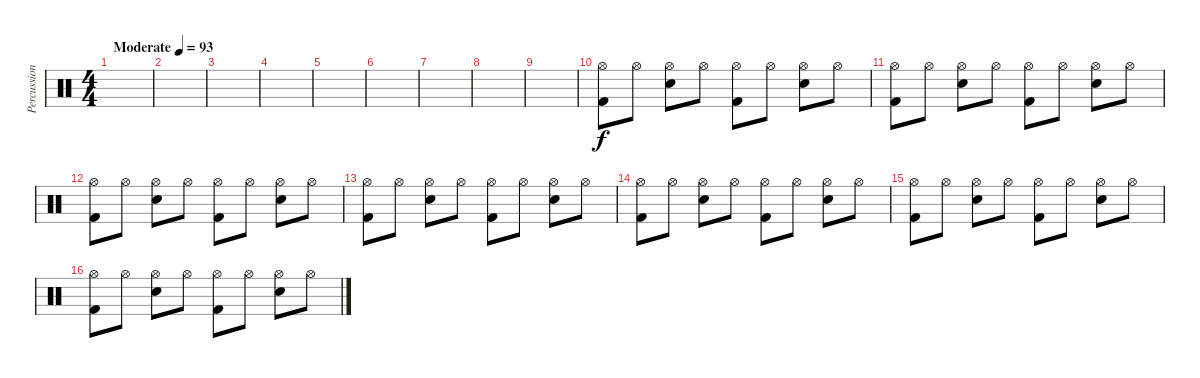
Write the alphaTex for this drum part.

\track ("Percussion" "Percussion") {instrument percussion}
\staff {score}
\articulation defaults
\ts (4 4)
\tempo (93 "Moderate")
\clef neutral
\ks c
|
|
|
|
|
|
|
|
|
("Kick (hit) 2" "Hi-Hat (open)").8 "Hi-Hat (open)".8 ("Electric Snare (hit)" "Hi-Hat (open)").8 "Hi-Hat (open)".8 ("Kick (hit) 2" "Hi-Hat (open)").8 "Hi-Hat (open)".8 ("Electric Snare (hit)" "Hi-Hat (open)").8 "Hi-Hat (open)".8 |
("Kick (hit) 2" "Hi-Hat (open)").8 "Hi-Hat (open)".8 ("Electric Snare (hit)" "Hi-Hat (open)").8 "Hi-Hat (open)".8 ("Kick (hit) 2" "Hi-Hat (open)").8 "Hi-Hat (open)".8 ("Electric Snare (hit)" "Hi-Hat (open)").8 "Hi-Hat (open)".8 |
("Kick (hit) 2" "Hi-Hat (open)").8 "Hi-Hat (open)".8 ("Electric Snare (hit)" "Hi-Hat (open)").8 "Hi-Hat (open)".8 ("Kick (hit) 2" "Hi-Hat (open)").8 "Hi-Hat (open)".8 ("Electric Snare (hit)" "Hi-Hat (open)").8 "Hi-Hat (open)".8 |
("Kick (hit) 2" "Hi-Hat (open)").8 "Hi-Hat (open)".8 ("Electric Snare (hit)" "Hi-Hat (open)").8 "Hi-Hat (open)".8 ("Kick (hit) 2" "Hi-Hat (open)").8 "Hi-Hat (open)".8 ("Electric Snare (hit)" "Hi-Hat (open)").8 "Hi-Hat (open)".8 |
("Kick (hit) 2" "Hi-Hat (open)").8 "Hi-Hat (open)".8 ("Electric Snare (hit)" "Hi-Hat (open)").8 "Hi-Hat (open)".8 ("Kick (hit) 2" "Hi-Hat (open)").8 "Hi-Hat (open)".8 ("Electric Snare (hit)" "Hi-Hat (open)").8 "Hi-Hat (open)".8 |
("Kick (hit) 2" "Hi-Hat (open)").8 "Hi-Hat (open)".8 ("Electric Snare (hit)" "Hi-Hat (open)").8 "Hi-Hat (open)".8 ("Kick (hit) 2" "Hi-Hat (open)").8 "Hi-Hat (open)".8 ("Electric Snare (hit)" "Hi-Hat (open)").8 "Hi-Hat (open)".8 |
("Kick (hit) 2" "Hi-Hat (open)").8 "Hi-Hat (open)".8 ("Electric Snare (hit)" "Hi-Hat (open)").8 "Hi-Hat (open)".8 ("Kick (hit) 2" "Hi-Hat (open)").8 "Hi-Hat (open)".8 ("Electric Snare (hit)" "Hi-Hat (open)").8 "Hi-Hat (open)".8
